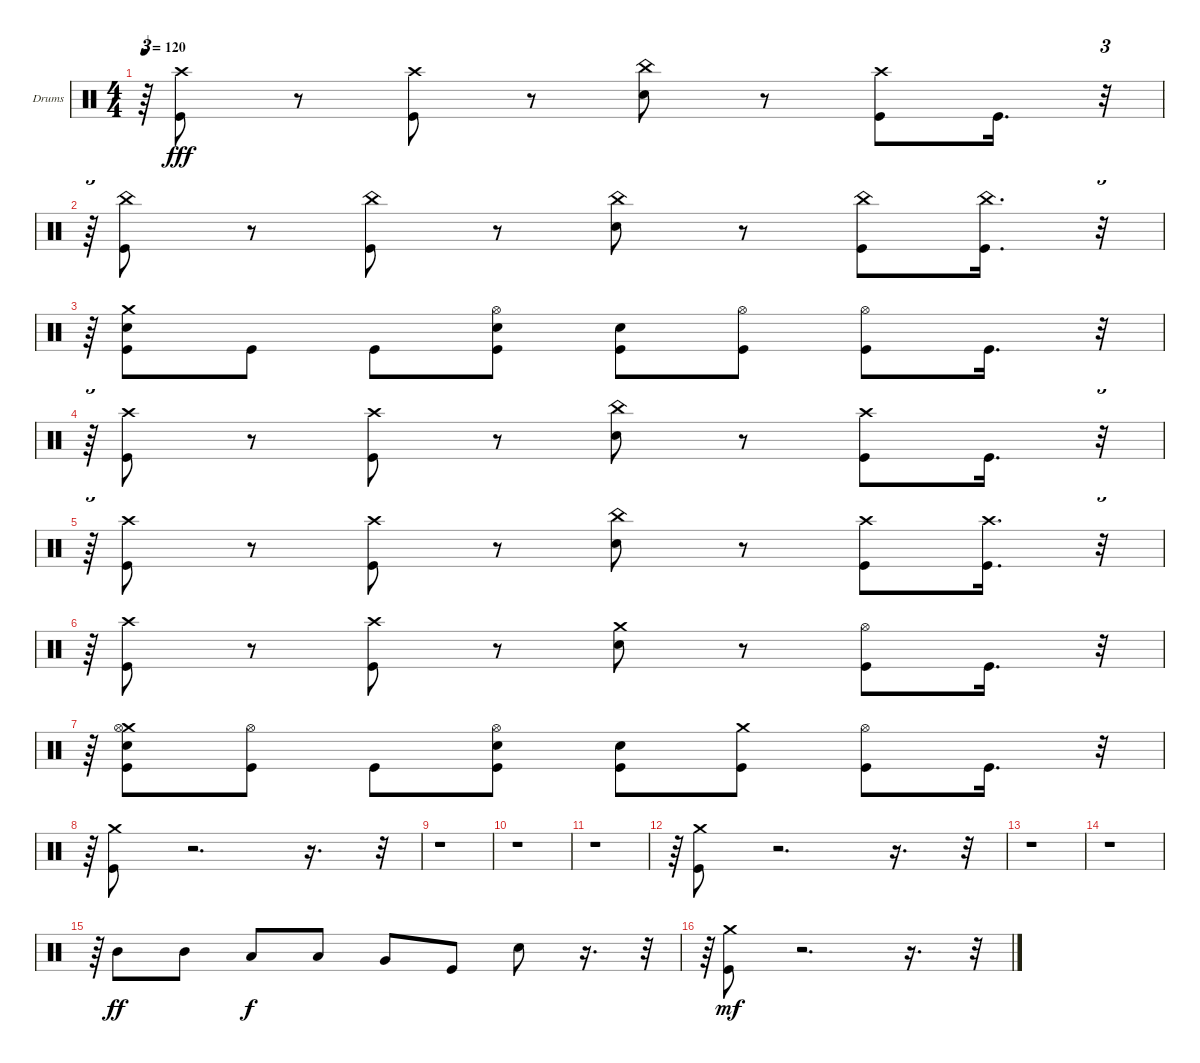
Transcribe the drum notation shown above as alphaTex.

\bracketExtendMode groupsimilarinstruments
\firstSystemTrackNameOrientation horizontal
\otherSystemsTrackNameOrientation horizontal
\track ("Drums" "Drums") {instrument percussion}
\staff {score}
\articulation defaults
\ts (4 4)
\tempo 120
\clef neutral
\ks c
r.64{tu (3 2) dy fff} ("Crash high (hit)" "Kick (hit)").8 r.8 ("Crash high (hit)" "Kick (hit)").8 r.8 ("China (hit)" "Snare (hit) 2").8 r.8 ("Crash high (hit)" "Kick (hit)").8 "Kick (hit)".16{d} r.32{tu (3 2)} |
r.64{tu (3 2)} ("China (hit)" "Kick (hit)").8 r.8 ("China (hit)" "Kick (hit)").8 r.8 ("China (hit)" "Snare (hit) 2").8 r.8 ("China (hit)" "Kick (hit)").8 ("China (hit)" "Kick (hit)").16{d} r.32{tu (3 2)} |
r.64{tu (3 2)} ("Crash medium (hit)" "Snare (hit) 2" "Kick (hit)").8 "Kick (hit)".8 "Kick (hit)".8 ("Hi-Hat (open)" "Snare (hit) 2" "Kick (hit)").8 ("Snare (hit) 2" "Kick (hit)").8 ("Hi-Hat (open)" "Kick (hit)").8 ("Hi-Hat (open)" "Kick (hit)").8 "Kick (hit)".16{d} r.32{tu (3 2)} |
r.64{tu (3 2)} ("Crash high (hit)" "Kick (hit)").8 r.8 ("Crash high (hit)" "Kick (hit)").8 r.8 ("China (hit)" "Snare (hit) 2").8 r.8 ("Crash high (hit)" "Kick (hit)").8 "Kick (hit)".16{d} r.32{tu (3 2)} |
r.64{tu (3 2)} ("Crash high (hit)" "Kick (hit)").8 r.8 ("Crash high (hit)" "Kick (hit)").8 r.8 ("China (hit)" "Snare (hit) 2").8 r.8 ("Crash high (hit)" "Kick (hit)").8 ("Crash high (hit)" "Kick (hit)").16{d} r.32{tu (3 2)} |
r.64{tu (3 2)} ("Crash high (hit)" "Kick (hit)").8 r.8 ("Crash high (hit)" "Kick (hit)").8 r.8 ("Crash medium (hit)" "Snare (hit) 2").8 r.8 ("Hi-Hat (open)" "Kick (hit)").8 "Kick (hit)".16{d} r.32{tu (3 2)} |
r.64{tu (3 2)} ("Crash medium (hit)" "Snare (hit) 2" "Hi-Hat (open)" "Kick (hit)").8 ("Hi-Hat (open)" "Kick (hit)").8 "Kick (hit)".8 ("Hi-Hat (open)" "Snare (hit) 2" "Kick (hit)").8 ("Snare (hit) 2" "Kick (hit)").8 ("Crash medium (hit)" "Kick (hit)").8 ("Hi-Hat (open)" "Kick (hit)").8 "Kick (hit)".16{d} r.32{tu (3 2)} |
r.64{tu (3 2)} ("Crash medium (hit)" "Kick (hit)").8 r.2{d} r.16{d} r.32{tu (3 2)} |
r.1 |
r.1 |
r.1 |
r.64{tu (3 2)} ("Crash medium (hit)" "Kick (hit)").8 r.2{d} r.16{d} r.32{tu (3 2)} |
r.1 |
r.1 |
r.64{tu (3 2)} "Mid Tom (hit)".8{dy ff} "Mid Tom (hit)".8 "Low Tom (hit)".8{dy f} "Low Tom (hit)".8 "Very Low Tom (hit)".8 "Kick (hit)".8 "Snare (hit) 2".8 r.16{d} r.32{tu (3 2)} |
r.64{tu (3 2)} ("Crash medium (hit)" "Kick (hit)").8{dy mf} r.2{d} r.16{d} r.32{tu (3 2)}
